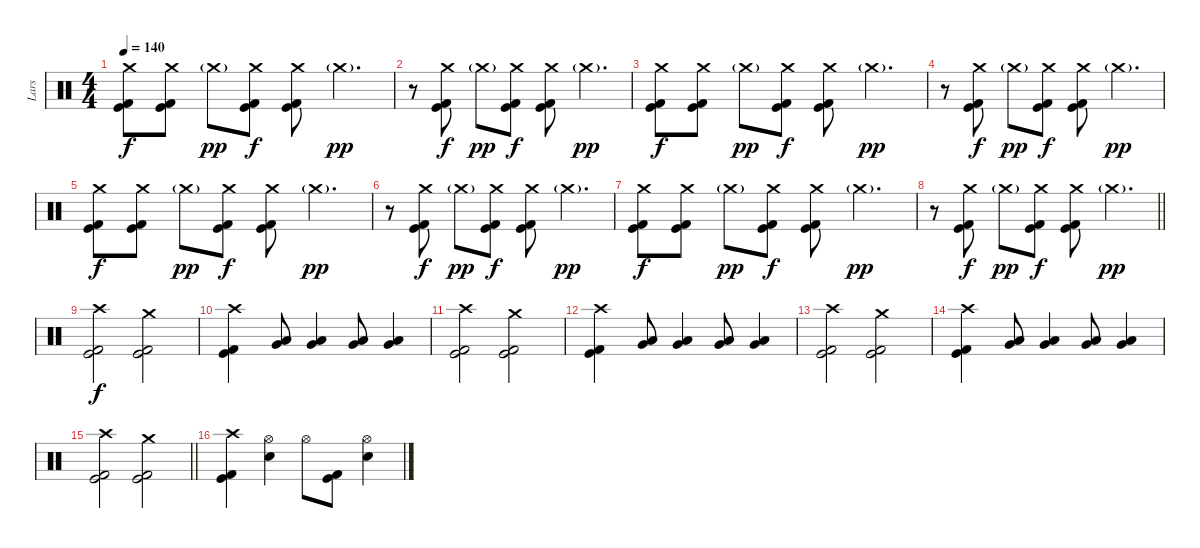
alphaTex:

\track ("Lars" "Lars") {instrument percussion}
\staff {score}
\articulation defaults
\ts (4 4)
\section ("" "")
\tempo 140
\clef neutral
\ks c
("Crash medium (hit)" "Kick (hit)" "Kick (hit) 2").8{dy f} ("Crash medium (hit)" "Kick (hit)" "Kick (hit) 2").8 "Crash medium (hit)"{g}.8{dy pp} ("Crash medium (hit)" "Kick (hit)" "Kick (hit) 2").8{dy f} ("Crash medium (hit)" "Kick (hit)" "Kick (hit) 2").8 "Crash medium (hit)"{g}.4{d dy pp} |
r.8 ("Crash medium (hit)" "Kick (hit)" "Kick (hit) 2").8{dy f} "Crash medium (hit)"{g}.8{dy pp} ("Crash medium (hit)" "Kick (hit)" "Kick (hit) 2").8{dy f} ("Crash medium (hit)" "Kick (hit)" "Kick (hit) 2").8 "Crash medium (hit)"{g}.4{d dy pp} |
("Crash medium (hit)" "Kick (hit)" "Kick (hit) 2").8{dy f} ("Crash medium (hit)" "Kick (hit)" "Kick (hit) 2").8 "Crash medium (hit)"{g}.8{dy pp} ("Crash medium (hit)" "Kick (hit)" "Kick (hit) 2").8{dy f} ("Crash medium (hit)" "Kick (hit)" "Kick (hit) 2").8 "Crash medium (hit)"{g}.4{d dy pp} |
r.8 ("Crash medium (hit)" "Kick (hit)" "Kick (hit) 2").8{dy f} "Crash medium (hit)"{g}.8{dy pp} ("Crash medium (hit)" "Kick (hit)" "Kick (hit) 2").8{dy f} ("Crash medium (hit)" "Kick (hit)" "Kick (hit) 2").8 "Crash medium (hit)"{g}.4{d dy pp} |
("Crash medium (hit)" "Kick (hit)" "Kick (hit) 2").8{dy f} ("Crash medium (hit)" "Kick (hit)" "Kick (hit) 2").8 "Crash medium (hit)"{g}.8{dy pp} ("Crash medium (hit)" "Kick (hit)" "Kick (hit) 2").8{dy f} ("Crash medium (hit)" "Kick (hit)" "Kick (hit) 2").8 "Crash medium (hit)"{g}.4{d dy pp} |
r.8 ("Crash medium (hit)" "Kick (hit)" "Kick (hit) 2").8{dy f} "Crash medium (hit)"{g}.8{dy pp} ("Crash medium (hit)" "Kick (hit)" "Kick (hit) 2").8{dy f} ("Crash medium (hit)" "Kick (hit)" "Kick (hit) 2").8 "Crash medium (hit)"{g}.4{d dy pp} |
("Crash medium (hit)" "Kick (hit)" "Kick (hit) 2").8{dy f} ("Crash medium (hit)" "Kick (hit)" "Kick (hit) 2").8 "Crash medium (hit)"{g}.8{dy pp} ("Crash medium (hit)" "Kick (hit)" "Kick (hit) 2").8{dy f} ("Crash medium (hit)" "Kick (hit)" "Kick (hit) 2").8 "Crash medium (hit)"{g}.4{d dy pp} |
\barLineRight lightlight
r.8 ("Crash medium (hit)" "Kick (hit)" "Kick (hit) 2").8{dy f} "Crash medium (hit)"{g}.8{dy pp} ("Crash medium (hit)" "Kick (hit)" "Kick (hit) 2").8{dy f} ("Crash medium (hit)" "Kick (hit)" "Kick (hit) 2").8 "Crash medium (hit)"{g}.4{d dy pp} |
\section ("" "")
("Crash high (hit)" "Kick (hit)" "Kick (hit) 2").2{dy f} ("Crash medium (hit)" "Kick (hit)" "Kick (hit) 2").2 |
("Crash high (hit)" "Kick (hit)" "Kick (hit) 2").4 ("Low Tom (hit)" "Very Low Tom (hit)").8 ("Low Tom (hit)" "Very Low Tom (hit)").4 ("Low Tom (hit)" "Very Low Tom (hit)").8 ("Low Tom (hit)" "Very Low Tom (hit)").4 |
("Crash high (hit)" "Kick (hit)" "Kick (hit) 2").2 ("Crash medium (hit)" "Kick (hit)" "Kick (hit) 2").2 |
("Crash high (hit)" "Kick (hit)" "Kick (hit) 2").4 ("Low Tom (hit)" "Very Low Tom (hit)").8 ("Low Tom (hit)" "Very Low Tom (hit)").4 ("Low Tom (hit)" "Very Low Tom (hit)").8 ("Low Tom (hit)" "Very Low Tom (hit)").4 |
("Crash high (hit)" "Kick (hit)" "Kick (hit) 2").2 ("Crash medium (hit)" "Kick (hit)" "Kick (hit) 2").2 |
("Crash high (hit)" "Kick (hit)" "Kick (hit) 2").4 ("Low Tom (hit)" "Very Low Tom (hit)").8 ("Low Tom (hit)" "Very Low Tom (hit)").4 ("Low Tom (hit)" "Very Low Tom (hit)").8 ("Low Tom (hit)" "Very Low Tom (hit)").4 |
\barLineRight lightlight
("Crash high (hit)" "Kick (hit)" "Kick (hit) 2").2 ("Crash medium (hit)" "Kick (hit)" "Kick (hit) 2").2 |
\section ("" "")
("Crash high (hit)" "Kick (hit)" "Kick (hit) 2").4 ("Hi-Hat (open)" "Electric Snare (hit)").4 "Hi-Hat (open)".8 ("Kick (hit)" "Kick (hit) 2").8 ("Hi-Hat (open)" "Electric Snare (hit)").4
